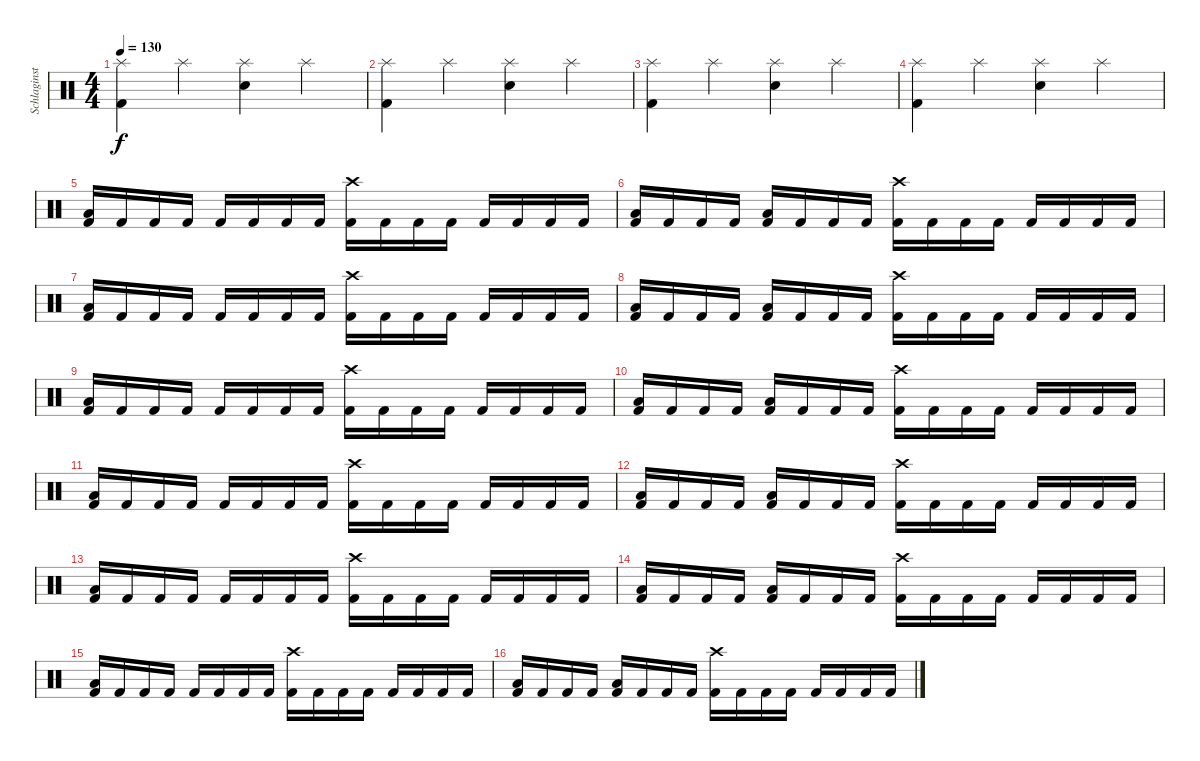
\track ("Schlaginstrumente - Auswahl" "Schlaginst") {instrument percussion}
\staff {score}
\articulation defaults
\ts (4 4)
\tempo 130
\clef neutral
\ks c
("Kick (hit) 2" "Splash (hit)").4{dy f} "Splash (hit)".4 ("Snare (hit) 2" "Splash (hit)").4 "Splash (hit)".4 |
("Kick (hit) 2" "Splash (hit)").4 "Splash (hit)".4 ("Snare (hit) 2" "Splash (hit)").4 "Splash (hit)".4 |
("Kick (hit) 2" "Splash (hit)").4 "Splash (hit)".4 ("Snare (hit) 2" "Splash (hit)").4 "Splash (hit)".4 |
("Kick (hit) 2" "Splash (hit)").4 "Splash (hit)".4 ("Snare (hit) 2" "Splash (hit)").4 "Splash (hit)".4 |
("Low Tom (hit)" "Kick (hit) 2").16 "Kick (hit) 2".16 "Kick (hit) 2".16 "Kick (hit) 2".16 "Kick (hit) 2".16 "Kick (hit) 2".16 "Kick (hit) 2".16 "Kick (hit) 2".16 ("Crash high (hit)" "Kick (hit) 2").16 "Kick (hit) 2".16 "Kick (hit) 2".16 "Kick (hit) 2".16 "Kick (hit) 2".16 "Kick (hit) 2".16 "Kick (hit) 2".16 "Kick (hit) 2".16 |
("Low Tom (hit)" "Kick (hit) 2").16 "Kick (hit) 2".16 "Kick (hit) 2".16 "Kick (hit) 2".16 ("Low Floor Tom (hit)" "Kick (hit) 2").16 "Kick (hit) 2".16 "Kick (hit) 2".16 "Kick (hit) 2".16 ("Crash high (hit)" "Kick (hit) 2").16 "Kick (hit) 2".16 "Kick (hit) 2".16 "Kick (hit) 2".16 "Kick (hit) 2".16 "Kick (hit) 2".16 "Kick (hit) 2".16 "Kick (hit) 2".16 |
("Low Tom (hit)" "Kick (hit) 2").16 "Kick (hit) 2".16 "Kick (hit) 2".16 "Kick (hit) 2".16 "Kick (hit) 2".16 "Kick (hit) 2".16 "Kick (hit) 2".16 "Kick (hit) 2".16 ("Crash high (hit)" "Kick (hit) 2").16 "Kick (hit) 2".16 "Kick (hit) 2".16 "Kick (hit) 2".16 "Kick (hit) 2".16 "Kick (hit) 2".16 "Kick (hit) 2".16 "Kick (hit) 2".16 |
("Low Tom (hit)" "Kick (hit) 2").16 "Kick (hit) 2".16 "Kick (hit) 2".16 "Kick (hit) 2".16 ("Low Floor Tom (hit)" "Kick (hit) 2").16 "Kick (hit) 2".16 "Kick (hit) 2".16 "Kick (hit) 2".16 ("Crash high (hit)" "Kick (hit) 2").16 "Kick (hit) 2".16 "Kick (hit) 2".16 "Kick (hit) 2".16 "Kick (hit) 2".16 "Kick (hit) 2".16 "Kick (hit) 2".16 "Kick (hit) 2".16 |
("Low Tom (hit)" "Kick (hit) 2").16 "Kick (hit) 2".16 "Kick (hit) 2".16 "Kick (hit) 2".16 "Kick (hit) 2".16 "Kick (hit) 2".16 "Kick (hit) 2".16 "Kick (hit) 2".16 ("Crash high (hit)" "Kick (hit) 2").16 "Kick (hit) 2".16 "Kick (hit) 2".16 "Kick (hit) 2".16 "Kick (hit) 2".16 "Kick (hit) 2".16 "Kick (hit) 2".16 "Kick (hit) 2".16 |
("Low Tom (hit)" "Kick (hit) 2").16 "Kick (hit) 2".16 "Kick (hit) 2".16 "Kick (hit) 2".16 ("Low Floor Tom (hit)" "Kick (hit) 2").16 "Kick (hit) 2".16 "Kick (hit) 2".16 "Kick (hit) 2".16 ("Crash high (hit)" "Kick (hit) 2").16 "Kick (hit) 2".16 "Kick (hit) 2".16 "Kick (hit) 2".16 "Kick (hit) 2".16 "Kick (hit) 2".16 "Kick (hit) 2".16 "Kick (hit) 2".16 |
("Low Tom (hit)" "Kick (hit) 2").16 "Kick (hit) 2".16 "Kick (hit) 2".16 "Kick (hit) 2".16 "Kick (hit) 2".16 "Kick (hit) 2".16 "Kick (hit) 2".16 "Kick (hit) 2".16 ("Crash high (hit)" "Kick (hit) 2").16 "Kick (hit) 2".16 "Kick (hit) 2".16 "Kick (hit) 2".16 "Kick (hit) 2".16 "Kick (hit) 2".16 "Kick (hit) 2".16 "Kick (hit) 2".16 |
("Low Tom (hit)" "Kick (hit) 2").16 "Kick (hit) 2".16 "Kick (hit) 2".16 "Kick (hit) 2".16 ("Low Floor Tom (hit)" "Kick (hit) 2").16 "Kick (hit) 2".16 "Kick (hit) 2".16 "Kick (hit) 2".16 ("Crash high (hit)" "Kick (hit) 2").16 "Kick (hit) 2".16 "Kick (hit) 2".16 "Kick (hit) 2".16 "Kick (hit) 2".16 "Kick (hit) 2".16 "Kick (hit) 2".16 "Kick (hit) 2".16 |
("Low Tom (hit)" "Kick (hit) 2").16 "Kick (hit) 2".16 "Kick (hit) 2".16 "Kick (hit) 2".16 "Kick (hit) 2".16 "Kick (hit) 2".16 "Kick (hit) 2".16 "Kick (hit) 2".16 ("Crash high (hit)" "Kick (hit) 2").16 "Kick (hit) 2".16 "Kick (hit) 2".16 "Kick (hit) 2".16 "Kick (hit) 2".16 "Kick (hit) 2".16 "Kick (hit) 2".16 "Kick (hit) 2".16 |
("Low Tom (hit)" "Kick (hit) 2").16 "Kick (hit) 2".16 "Kick (hit) 2".16 "Kick (hit) 2".16 ("Low Floor Tom (hit)" "Kick (hit) 2").16 "Kick (hit) 2".16 "Kick (hit) 2".16 "Kick (hit) 2".16 ("Crash high (hit)" "Kick (hit) 2").16 "Kick (hit) 2".16 "Kick (hit) 2".16 "Kick (hit) 2".16 "Kick (hit) 2".16 "Kick (hit) 2".16 "Kick (hit) 2".16 "Kick (hit) 2".16 |
("Low Tom (hit)" "Kick (hit) 2").16 "Kick (hit) 2".16 "Kick (hit) 2".16 "Kick (hit) 2".16 "Kick (hit) 2".16 "Kick (hit) 2".16 "Kick (hit) 2".16 "Kick (hit) 2".16 ("Crash high (hit)" "Kick (hit) 2").16 "Kick (hit) 2".16 "Kick (hit) 2".16 "Kick (hit) 2".16 "Kick (hit) 2".16 "Kick (hit) 2".16 "Kick (hit) 2".16 "Kick (hit) 2".16 |
("Low Tom (hit)" "Kick (hit) 2").16 "Kick (hit) 2".16 "Kick (hit) 2".16 "Kick (hit) 2".16 ("Low Floor Tom (hit)" "Kick (hit) 2").16 "Kick (hit) 2".16 "Kick (hit) 2".16 "Kick (hit) 2".16 ("Crash high (hit)" "Kick (hit) 2").16 "Kick (hit) 2".16 "Kick (hit) 2".16 "Kick (hit) 2".16 "Kick (hit) 2".16 "Kick (hit) 2".16 "Kick (hit) 2".16 "Kick (hit) 2".16
